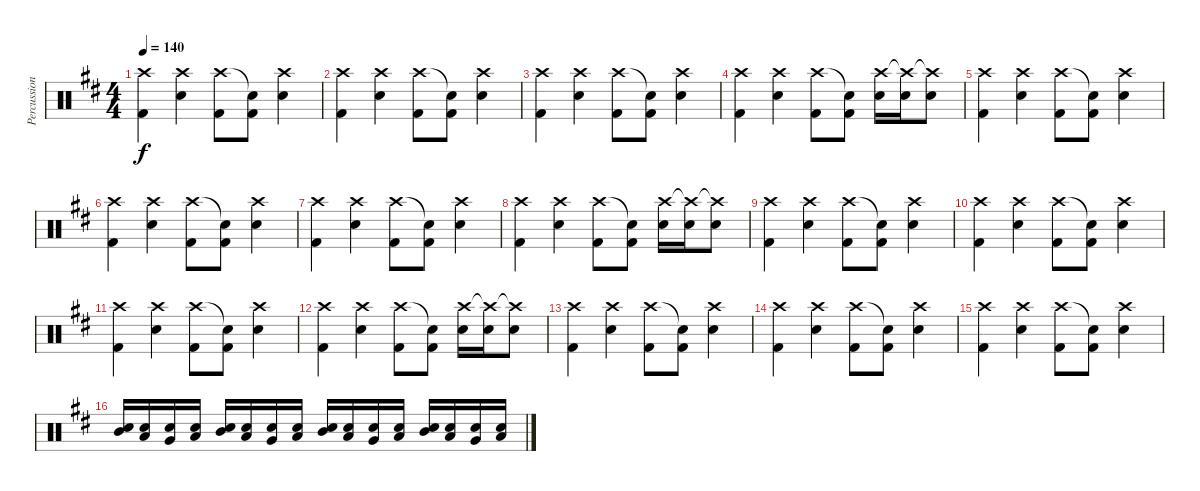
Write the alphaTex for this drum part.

\track ("Percussion" "Percussion") {instrument percussion}
\staff {score}
\articulation defaults
\ts (4 4)
\tempo 140
\clef neutral
\ks bminor
("Crash high (hit)" "Kick (hit) 2").4{dy f} ("Crash high (hit)" "Snare (hit) 2").4 ("Crash high (hit)" "Kick (hit) 2").8 ("Snare (hit)"{t} "Kick (hit) 2").8 ("Crash high (hit)" "Snare (hit) 2").4 |
("Crash high (hit)" "Kick (hit) 2").4 ("Crash high (hit)" "Snare (hit) 2").4 ("Crash high (hit)" "Kick (hit) 2").8 ("Snare (hit)"{t} "Kick (hit) 2").8 ("Crash high (hit)" "Snare (hit) 2").4 |
("Crash high (hit)" "Kick (hit) 2").4 ("Crash high (hit)" "Snare (hit) 2").4 ("Crash high (hit)" "Kick (hit) 2").8 ("Snare (hit)"{t} "Kick (hit) 2").8 ("Crash high (hit)" "Snare (hit) 2").4 |
("Crash high (hit)" "Kick (hit) 2").4 ("Crash high (hit)" "Snare (hit) 2").4 ("Crash high (hit)" "Kick (hit) 2").8 ("Snare (hit)"{t} "Kick (hit) 2").8 ("Crash high (hit)" "Snare (hit) 2").16 ("Crash high (hit)"{t} "Snare (hit) 2").16 ("Crash high (hit)"{t} "Snare (hit) 2").8 |
("Crash high (hit)" "Kick (hit) 2").4 ("Crash high (hit)" "Snare (hit) 2").4 ("Crash high (hit)" "Kick (hit) 2").8 ("Snare (hit)"{t} "Kick (hit) 2").8 ("Crash high (hit)" "Snare (hit) 2").4 |
("Crash high (hit)" "Kick (hit) 2").4 ("Crash high (hit)" "Snare (hit) 2").4 ("Crash high (hit)" "Kick (hit) 2").8 ("Snare (hit)"{t} "Kick (hit) 2").8 ("Crash high (hit)" "Snare (hit) 2").4 |
("Crash high (hit)" "Kick (hit) 2").4 ("Crash high (hit)" "Snare (hit) 2").4 ("Crash high (hit)" "Kick (hit) 2").8 ("Snare (hit)"{t} "Kick (hit) 2").8 ("Crash high (hit)" "Snare (hit) 2").4 |
("Crash high (hit)" "Kick (hit) 2").4 ("Crash high (hit)" "Snare (hit) 2").4 ("Crash high (hit)" "Kick (hit) 2").8 ("Snare (hit)"{t} "Kick (hit) 2").8 ("Crash high (hit)" "Snare (hit) 2").16 ("Crash high (hit)"{t} "Snare (hit) 2").16 ("Crash high (hit)"{t} "Snare (hit) 2").8 |
("Crash high (hit)" "Kick (hit) 2").4 ("Crash high (hit)" "Snare (hit) 2").4 ("Crash high (hit)" "Kick (hit) 2").8 ("Snare (hit)"{t} "Kick (hit) 2").8 ("Crash high (hit)" "Snare (hit) 2").4 |
("Crash high (hit)" "Kick (hit) 2").4 ("Crash high (hit)" "Snare (hit) 2").4 ("Crash high (hit)" "Kick (hit) 2").8 ("Snare (hit)"{t} "Kick (hit) 2").8 ("Crash high (hit)" "Snare (hit) 2").4 |
("Crash high (hit)" "Kick (hit) 2").4 ("Crash high (hit)" "Snare (hit) 2").4 ("Crash high (hit)" "Kick (hit) 2").8 ("Snare (hit)"{t} "Kick (hit) 2").8 ("Crash high (hit)" "Snare (hit) 2").4 |
("Crash high (hit)" "Kick (hit) 2").4 ("Crash high (hit)" "Snare (hit) 2").4 ("Crash high (hit)" "Kick (hit) 2").8 ("Snare (hit)"{t} "Kick (hit) 2").8 ("Crash high (hit)" "Snare (hit) 2").16 ("Crash high (hit)"{t} "Snare (hit) 2").16 ("Crash high (hit)"{t} "Snare (hit) 2").8 |
("Crash high (hit)" "Kick (hit) 2").4 ("Crash high (hit)" "Snare (hit) 2").4 ("Crash high (hit)" "Kick (hit) 2").8 ("Snare (hit)"{t} "Kick (hit) 2").8 ("Crash high (hit)" "Snare (hit) 2").4 |
("Crash high (hit)" "Kick (hit) 2").4 ("Crash high (hit)" "Snare (hit) 2").4 ("Crash high (hit)" "Kick (hit) 2").8 ("Snare (hit)"{t} "Kick (hit) 2").8 ("Crash high (hit)" "Snare (hit) 2").4 |
("Crash high (hit)" "Kick (hit) 2").4 ("Crash high (hit)" "Snare (hit) 2").4 ("Crash high (hit)" "Kick (hit) 2").8 ("Snare (hit)"{t} "Kick (hit) 2").8 ("Crash high (hit)" "Snare (hit) 2").4 |
("Mid Tom (hit)" "Snare (hit) 2").16 ("Low Tom (hit)" "Snare (hit) 2").16 ("Very Low Tom (hit)" "Snare (hit) 2").16 ("Low Floor Tom (hit)" "Snare (hit) 2").16 ("Mid Tom (hit)" "Snare (hit) 2").16 ("Low Tom (hit)" "Snare (hit) 2").16 ("Very Low Tom (hit)" "Snare (hit) 2").16 ("Low Floor Tom (hit)" "Snare (hit) 2").16 ("Mid Tom (hit)" "Snare (hit) 2").16 ("Low Tom (hit)" "Snare (hit) 2").16 ("Very Low Tom (hit)" "Snare (hit) 2").16 ("Low Floor Tom (hit)" "Snare (hit) 2").16 ("Mid Tom (hit)" "Snare (hit) 2").16 ("Low Tom (hit)" "Snare (hit) 2").16 ("Very Low Tom (hit)" "Snare (hit) 2").16 ("Low Floor Tom (hit)" "Snare (hit) 2").16
